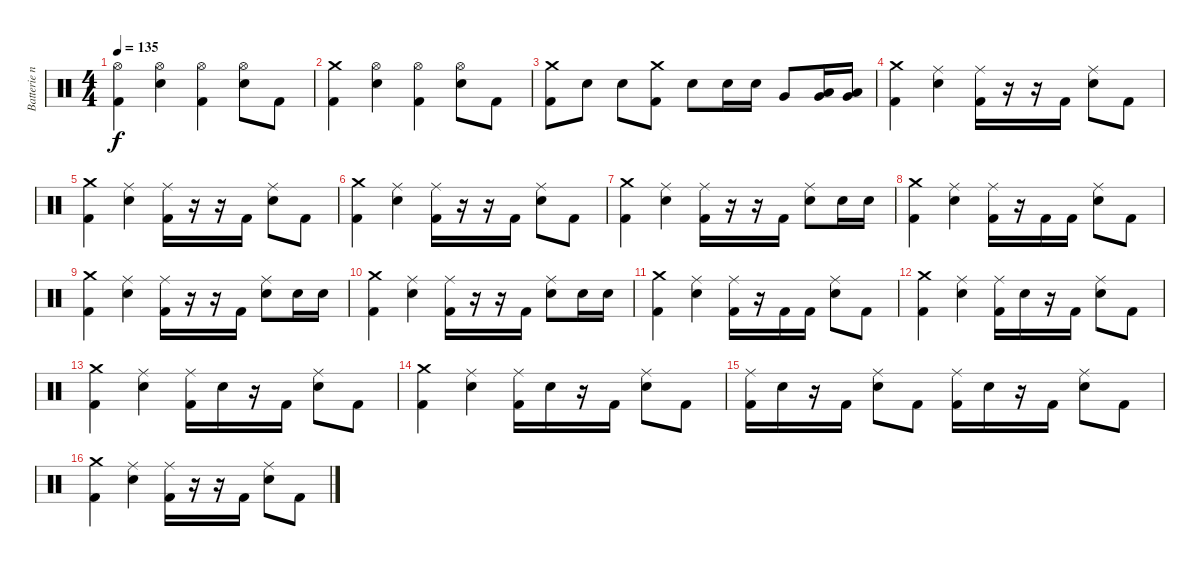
\track ("Batterie n°3" "Batterie n") {instrument percussion}
\staff {score}
\articulation defaults
\ts (4 4)
\tempo 135
\clef neutral
\ks c
("Hi-Hat (open)" "Kick (hit) 2").4{dy f} ("Hi-Hat (open)" "Snare (hit) 2").4 ("Hi-Hat (open)" "Kick (hit) 2").4 ("Hi-Hat (open)" "Snare (hit) 2").8 "Kick (hit) 2".8 |
("Crash medium (hit)" "Kick (hit) 2").4 ("Hi-Hat (open)" "Snare (hit) 2").4 ("Hi-Hat (open)" "Kick (hit) 2").4 ("Hi-Hat (open)" "Snare (hit) 2").8 "Kick (hit) 2".8 |
("Crash medium (hit)" "Kick (hit) 2").8 "Snare (hit) 2".8 "Snare (hit) 2".8 ("Crash medium (hit)" "Kick (hit) 2").8 "Snare (hit) 2".8 "Snare (hit) 2".16 "Snare (hit) 2".16 "Very Low Tom (hit)".8 ("Low Tom (hit)" "Very Low Tom (hit)").16 ("Low Tom (hit)" "Very Low Tom (hit)").16 |
("Crash medium (hit)" "Kick (hit) 2").4 ("Ride (middle)" "Snare (hit) 2").4 ("Ride (middle)" "Kick (hit) 2").16 r.16 r.16 "Kick (hit) 2".16 ("Ride (middle)" "Snare (hit) 2").8 "Kick (hit) 2".8 |
("Crash medium (hit)" "Kick (hit) 2").4 ("Ride (middle)" "Snare (hit) 2").4 ("Ride (middle)" "Kick (hit) 2").16 r.16 r.16 "Kick (hit) 2".16 ("Ride (middle)" "Snare (hit) 2").8 "Kick (hit) 2".8 |
("Crash medium (hit)" "Kick (hit) 2").4 ("Ride (middle)" "Snare (hit) 2").4 ("Ride (middle)" "Kick (hit) 2").16 r.16 r.16 "Kick (hit) 2".16 ("Ride (middle)" "Snare (hit) 2").8 "Kick (hit) 2".8 |
("Crash medium (hit)" "Kick (hit) 2").4 ("Ride (middle)" "Snare (hit) 2").4 ("Ride (middle)" "Kick (hit) 2").16 r.16 r.16 "Kick (hit) 2".16 ("Ride (middle)" "Snare (hit) 2").8 "Snare (hit) 2".16 "Snare (hit) 2".16 |
("Crash medium (hit)" "Kick (hit) 2").4 ("Ride (middle)" "Snare (hit) 2").4 ("Ride (middle)" "Kick (hit) 2").16 r.16 "Kick (hit) 2".16 "Kick (hit) 2".16 ("Ride (middle)" "Snare (hit) 2").8 "Kick (hit) 2".8 |
("Crash medium (hit)" "Kick (hit) 2").4 ("Ride (middle)" "Snare (hit) 2").4 ("Ride (middle)" "Kick (hit) 2").16 r.16 r.16 "Kick (hit) 2".16 ("Ride (middle)" "Snare (hit) 2").8 "Snare (hit) 2".16 "Snare (hit) 2".16 |
("Crash medium (hit)" "Kick (hit) 2").4 ("Ride (middle)" "Snare (hit) 2").4 ("Ride (middle)" "Kick (hit) 2").16 r.16 r.16 "Kick (hit) 2".16 ("Ride (middle)" "Snare (hit) 2").8 "Snare (hit) 2".16 "Snare (hit) 2".16 |
("Crash medium (hit)" "Kick (hit) 2").4 ("Ride (middle)" "Snare (hit) 2").4 ("Ride (middle)" "Kick (hit) 2").16 r.16 "Kick (hit) 2".16 "Kick (hit) 2".16 ("Ride (middle)" "Snare (hit) 2").8 "Kick (hit) 2".8 |
("Crash medium (hit)" "Kick (hit) 2").4 ("Ride (middle)" "Snare (hit) 2").4 ("Ride (middle)" "Kick (hit) 2").16 "Snare (hit) 2".16 r.16 "Kick (hit) 2".16 ("Ride (middle)" "Snare (hit) 2").8 "Kick (hit) 2".8 |
("Crash medium (hit)" "Kick (hit) 2").4 ("Ride (middle)" "Snare (hit) 2").4 ("Ride (middle)" "Kick (hit) 2").16 "Snare (hit) 2".16 r.16 "Kick (hit) 2".16 ("Ride (middle)" "Snare (hit) 2").8 "Kick (hit) 2".8 |
("Crash medium (hit)" "Kick (hit) 2").4 ("Ride (middle)" "Snare (hit) 2").4 ("Ride (middle)" "Kick (hit) 2").16 "Snare (hit) 2".16 r.16 "Kick (hit) 2".16 ("Ride (middle)" "Snare (hit) 2").8 "Kick (hit) 2".8 |
("Ride (middle)" "Kick (hit) 2").16 "Snare (hit) 2".16 r.16 "Kick (hit) 2".16 ("Ride (middle)" "Snare (hit) 2").8 "Kick (hit) 2".8 ("Ride (middle)" "Kick (hit) 2").16 "Snare (hit) 2".16 r.16 "Kick (hit) 2".16 ("Ride (middle)" "Snare (hit) 2").8 "Kick (hit) 2".8 |
("Crash medium (hit)" "Kick (hit) 2").4 ("Ride (middle)" "Snare (hit) 2").4 ("Ride (middle)" "Kick (hit) 2").16 r.16 r.16 "Kick (hit) 2".16 ("Ride (middle)" "Snare (hit) 2").8 "Kick (hit) 2".8
